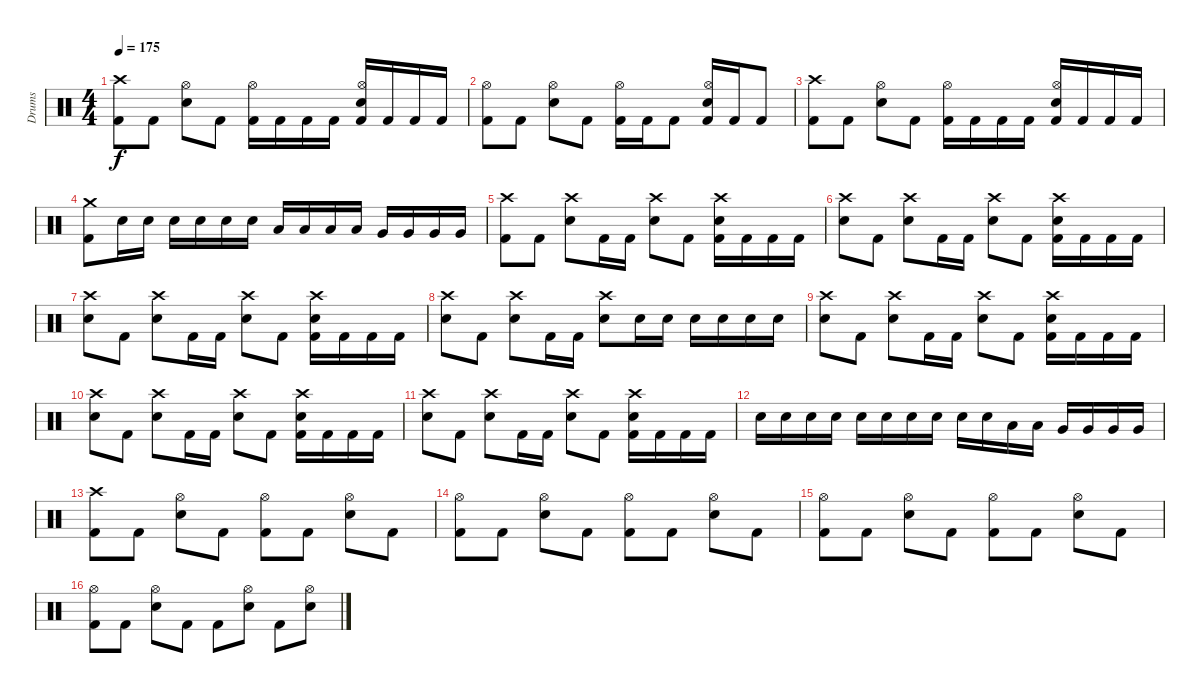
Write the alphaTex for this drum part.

\track ("Drums" "Drums") {instrument percussion}
\staff {score}
\articulation defaults
\ts (4 4)
\tempo 175
\clef neutral
\ks c
("Crash high (hit)" "Kick (hit) 2").8{dy f} "Kick (hit) 2".8 ("Hi-Hat (open)" "Snare (hit) 2").8 "Kick (hit) 2".8 ("Hi-Hat (open)" "Kick (hit) 2").16 "Kick (hit) 2".16 "Kick (hit) 2".16 "Kick (hit) 2".16 ("Hi-Hat (open)" "Snare (hit) 2" "Kick (hit) 2").16 "Kick (hit) 2".16 "Kick (hit) 2".16 "Kick (hit) 2".16 |
("Hi-Hat (open)" "Kick (hit) 2").8 "Kick (hit) 2".8 ("Hi-Hat (open)" "Snare (hit) 2").8 "Kick (hit) 2".8 ("Hi-Hat (open)" "Kick (hit) 2").16 "Kick (hit) 2".16 "Kick (hit) 2".8 ("Hi-Hat (open)" "Snare (hit) 2" "Kick (hit) 2").16 "Kick (hit) 2".16 "Kick (hit) 2".8 |
("Crash high (hit)" "Kick (hit) 2").8 "Kick (hit) 2".8 ("Hi-Hat (open)" "Snare (hit) 2").8 "Kick (hit) 2".8 ("Hi-Hat (open)" "Kick (hit) 2").16 "Kick (hit) 2".16 "Kick (hit) 2".16 "Kick (hit) 2".16 ("Hi-Hat (open)" "Snare (hit) 2" "Kick (hit) 2").16 "Kick (hit) 2".16 "Kick (hit) 2".16 "Kick (hit) 2".16 |
("Crash medium (hit)" "Kick (hit) 2").8 "Snare (hit) 2".16 "Snare (hit) 2".16 "Snare (hit) 2".16 "Snare (hit) 2".16 "Snare (hit) 2".16 "Snare (hit) 2".16 "Low Tom (hit)".16 "Low Tom (hit)".16 "Low Tom (hit)".16 "Low Tom (hit)".16 "Very Low Tom (hit)".16 "Very Low Tom (hit)".16 "Very Low Tom (hit)".16 "Very Low Tom (hit)".16 |
("Crash high (hit)" "Kick (hit) 2").8 "Kick (hit) 2".8 ("Crash high (hit)" "Snare (hit) 2").8 "Kick (hit) 2".16 "Kick (hit) 2".16 ("Crash high (hit)" "Snare (hit) 2").8 "Kick (hit) 2".8 ("Crash high (hit)" "Snare (hit) 2" "Kick (hit) 2").16 "Kick (hit) 2".16 "Kick (hit) 2".16 "Kick (hit) 2".16 |
("Crash high (hit)" "Snare (hit) 2").8 "Kick (hit) 2".8 ("Crash high (hit)" "Snare (hit) 2").8 "Kick (hit) 2".16 "Kick (hit) 2".16 ("Crash high (hit)" "Snare (hit) 2").8 "Kick (hit) 2".8 ("Crash high (hit)" "Snare (hit) 2" "Kick (hit) 2").16 "Kick (hit) 2".16 "Kick (hit) 2".16 "Kick (hit) 2".16 |
("Crash high (hit)" "Snare (hit) 2").8 "Kick (hit) 2".8 ("Crash high (hit)" "Snare (hit) 2").8 "Kick (hit) 2".16 "Kick (hit) 2".16 ("Crash high (hit)" "Snare (hit) 2").8 "Kick (hit) 2".8 ("Crash high (hit)" "Snare (hit) 2" "Kick (hit) 2").16 "Kick (hit) 2".16 "Kick (hit) 2".16 "Kick (hit) 2".16 |
("Crash high (hit)" "Snare (hit) 2").8 "Kick (hit) 2".8 ("Crash high (hit)" "Snare (hit) 2").8 "Kick (hit) 2".16 "Kick (hit) 2".16 ("Crash high (hit)" "Snare (hit) 2").8 "Snare (hit) 2".16 "Snare (hit) 2".16 "Snare (hit) 2".16 "Snare (hit) 2".16 "Snare (hit) 2".16 "Snare (hit) 2".16 |
("Crash high (hit)" "Snare (hit) 2").8 "Kick (hit) 2".8 ("Crash high (hit)" "Snare (hit) 2").8 "Kick (hit) 2".16 "Kick (hit) 2".16 ("Crash high (hit)" "Snare (hit) 2").8 "Kick (hit) 2".8 ("Crash high (hit)" "Snare (hit) 2" "Kick (hit) 2").16 "Kick (hit) 2".16 "Kick (hit) 2".16 "Kick (hit) 2".16 |
("Crash high (hit)" "Snare (hit) 2").8 "Kick (hit) 2".8 ("Crash high (hit)" "Snare (hit) 2").8 "Kick (hit) 2".16 "Kick (hit) 2".16 ("Crash high (hit)" "Snare (hit) 2").8 "Kick (hit) 2".8 ("Crash high (hit)" "Snare (hit) 2" "Kick (hit) 2").16 "Kick (hit) 2".16 "Kick (hit) 2".16 "Kick (hit) 2".16 |
("Crash high (hit)" "Snare (hit) 2").8 "Kick (hit) 2".8 ("Crash high (hit)" "Snare (hit) 2").8 "Kick (hit) 2".16 "Kick (hit) 2".16 ("Crash high (hit)" "Snare (hit) 2").8 "Kick (hit) 2".8 ("Crash high (hit)" "Snare (hit) 2" "Kick (hit) 2").16 "Kick (hit) 2".16 "Kick (hit) 2".16 "Kick (hit) 2".16 |
"Snare (hit) 2".16 "Snare (hit) 2".16 "Snare (hit) 2".16 "Snare (hit) 2".16 "Snare (hit) 2".16 "Snare (hit) 2".16 "Snare (hit) 2".16 "Snare (hit) 2".16 "Snare (hit) 2".16 "Snare (hit) 2".16 "Low Tom (hit)".16 "Low Tom (hit)".16 "Very Low Tom (hit)".16 "Very Low Tom (hit)".16 "Very Low Tom (hit)".16 "Very Low Tom (hit)".16 |
("Crash high (hit)" "Kick (hit) 2").8 "Kick (hit) 2".8 ("Hi-Hat (open)" "Snare (hit) 2").8 "Kick (hit) 2".8 ("Hi-Hat (open)" "Kick (hit) 2").8 "Kick (hit) 2".8 ("Hi-Hat (open)" "Snare (hit) 2").8 "Kick (hit) 2".8 |
("Hi-Hat (open)" "Kick (hit) 2").8 "Kick (hit) 2".8 ("Hi-Hat (open)" "Snare (hit) 2").8 "Kick (hit) 2".8 ("Hi-Hat (open)" "Kick (hit) 2").8 "Kick (hit) 2".8 ("Hi-Hat (open)" "Snare (hit) 2").8 "Kick (hit) 2".8 |
("Hi-Hat (open)" "Kick (hit) 2").8 "Kick (hit) 2".8 ("Hi-Hat (open)" "Snare (hit) 2").8 "Kick (hit) 2".8 ("Hi-Hat (open)" "Kick (hit) 2").8 "Kick (hit) 2".8 ("Hi-Hat (open)" "Snare (hit) 2").8 "Kick (hit) 2".8 |
("Hi-Hat (open)" "Kick (hit) 2").8 "Kick (hit) 2".8 ("Hi-Hat (open)" "Snare (hit) 2").8 "Kick (hit) 2".8 "Kick (hit) 2".8 ("Hi-Hat (open)" "Snare (hit) 2").8 "Kick (hit) 2".8 ("Hi-Hat (open)" "Snare (hit) 2").8
